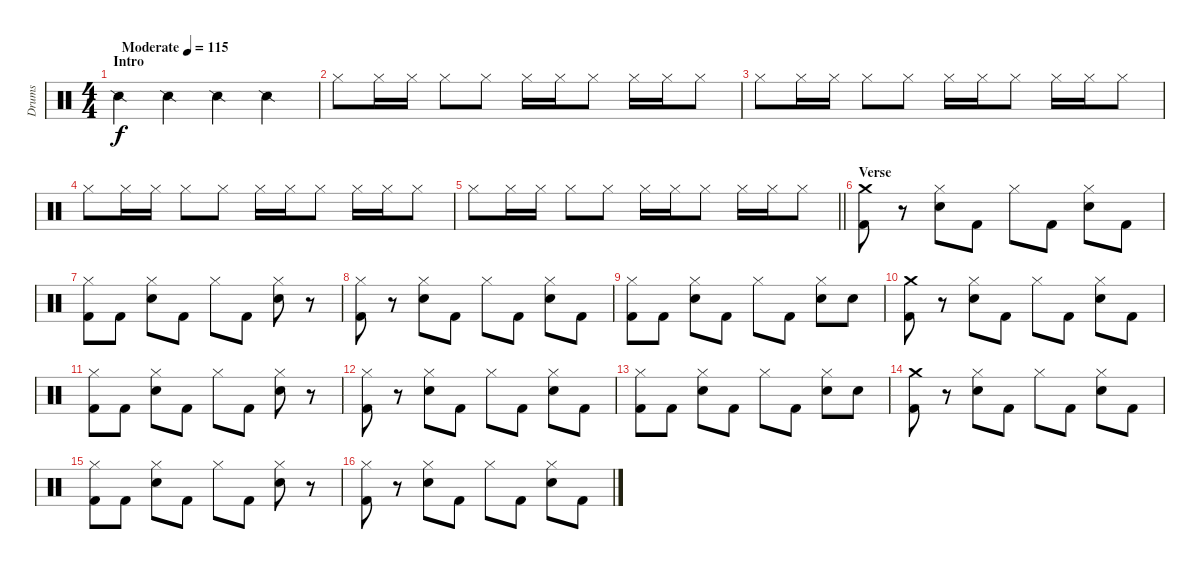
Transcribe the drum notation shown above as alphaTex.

\track ("Drums" "Drums") {instrument percussion}
\staff {score}
\articulation defaults
\ts (4 4)
\section ("" "Intro")
\tempo (115 "Moderate")
\clef neutral
\ks c "Snare (side stick) 2".4{dy f} "Snare (side stick) 2".4 "Snare (side stick) 2".4 "Snare (side stick) 2".4
|
"Hi-Hat (closed)".8 "Hi-Hat (closed)".16 "Hi-Hat (closed)".16 "Hi-Hat (closed)".8 "Hi-Hat (closed)".8 "Hi-Hat (closed)".16 "Hi-Hat (closed)".16 "Hi-Hat (closed)".8 "Hi-Hat (closed)".16 "Hi-Hat (closed)".16 "Hi-Hat (closed)".8 |
"Hi-Hat (closed)".8 "Hi-Hat (closed)".16 "Hi-Hat (closed)".16 "Hi-Hat (closed)".8 "Hi-Hat (closed)".8 "Hi-Hat (closed)".16 "Hi-Hat (closed)".16 "Hi-Hat (closed)".8 "Hi-Hat (closed)".16 "Hi-Hat (closed)".16 "Hi-Hat (closed)".8 |
"Hi-Hat (closed)".8 "Hi-Hat (closed)".16 "Hi-Hat (closed)".16 "Hi-Hat (closed)".8 "Hi-Hat (closed)".8 "Hi-Hat (closed)".16 "Hi-Hat (closed)".16 "Hi-Hat (closed)".8 "Hi-Hat (closed)".16 "Hi-Hat (closed)".16 "Hi-Hat (closed)".8 |
\barLineRight lightlight "Hi-Hat (closed)".8 "Hi-Hat (closed)".16 "Hi-Hat (closed)".16 "Hi-Hat (closed)".8 "Hi-Hat (closed)".8 "Hi-Hat (closed)".16 "Hi-Hat (closed)".16 "Hi-Hat (closed)".8 "Hi-Hat (closed)".16 "Hi-Hat (closed)".16 "Hi-Hat (closed)".8
|
\section ("" "Verse")
("Crash medium (hit)" "Kick (hit) 2").8 r.8 ("Hi-Hat (closed)" "Electric Snare (hit)").8 "Kick (hit) 2".8 "Hi-Hat (closed)".8 "Kick (hit) 2".8 ("Hi-Hat (closed)" "Electric Snare (hit)").8 "Kick (hit) 2".8 |
("Hi-Hat (closed)" "Kick (hit) 2").8 "Kick (hit) 2".8 ("Hi-Hat (closed)" "Electric Snare (hit)").8 "Kick (hit) 2".8 "Hi-Hat (closed)".8 "Kick (hit) 2".8 ("Hi-Hat (closed)" "Electric Snare (hit)").8 r.8 |
("Hi-Hat (closed)" "Kick (hit) 2").8 r.8 ("Hi-Hat (closed)" "Electric Snare (hit)").8 "Kick (hit) 2".8 "Hi-Hat (closed)".8 "Kick (hit) 2".8 ("Hi-Hat (closed)" "Electric Snare (hit)").8 "Kick (hit) 2".8 |
("Hi-Hat (closed)" "Kick (hit) 2").8 "Kick (hit) 2".8 ("Hi-Hat (closed)" "Electric Snare (hit)").8 "Kick (hit) 2".8 "Hi-Hat (closed)".8 "Kick (hit) 2".8 ("Hi-Hat (closed)" "Electric Snare (hit)").8 "Electric Snare (hit)".8 |
("Crash medium (hit)" "Kick (hit) 2").8 r.8 ("Hi-Hat (closed)" "Electric Snare (hit)").8 "Kick (hit) 2".8 "Hi-Hat (closed)".8 "Kick (hit) 2".8 ("Hi-Hat (closed)" "Electric Snare (hit)").8 "Kick (hit) 2".8 |
("Hi-Hat (closed)" "Kick (hit) 2").8 "Kick (hit) 2".8 ("Hi-Hat (closed)" "Electric Snare (hit)").8 "Kick (hit) 2".8 "Hi-Hat (closed)".8 "Kick (hit) 2".8 ("Hi-Hat (closed)" "Electric Snare (hit)").8 r.8 |
("Hi-Hat (closed)" "Kick (hit) 2").8 r.8 ("Hi-Hat (closed)" "Electric Snare (hit)").8 "Kick (hit) 2".8 "Hi-Hat (closed)".8 "Kick (hit) 2".8 ("Hi-Hat (closed)" "Electric Snare (hit)").8 "Kick (hit) 2".8 |
("Hi-Hat (closed)" "Kick (hit) 2").8 "Kick (hit) 2".8 ("Hi-Hat (closed)" "Electric Snare (hit)").8 "Kick (hit) 2".8 "Hi-Hat (closed)".8 "Kick (hit) 2".8 ("Hi-Hat (closed)" "Electric Snare (hit)").8 "Electric Snare (hit)".8 |
("Crash medium (hit)" "Kick (hit) 2").8 r.8 ("Hi-Hat (closed)" "Electric Snare (hit)").8 "Kick (hit) 2".8 "Hi-Hat (closed)".8 "Kick (hit) 2".8 ("Hi-Hat (closed)" "Electric Snare (hit)").8 "Kick (hit) 2".8 |
("Hi-Hat (closed)" "Kick (hit) 2").8 "Kick (hit) 2".8 ("Hi-Hat (closed)" "Electric Snare (hit)").8 "Kick (hit) 2".8 "Hi-Hat (closed)".8 "Kick (hit) 2".8 ("Hi-Hat (closed)" "Electric Snare (hit)").8 r.8 |
("Hi-Hat (closed)" "Kick (hit) 2").8 r.8 ("Hi-Hat (closed)" "Electric Snare (hit)").8 "Kick (hit) 2".8 "Hi-Hat (closed)".8 "Kick (hit) 2".8 ("Hi-Hat (closed)" "Electric Snare (hit)").8 "Kick (hit) 2".8
